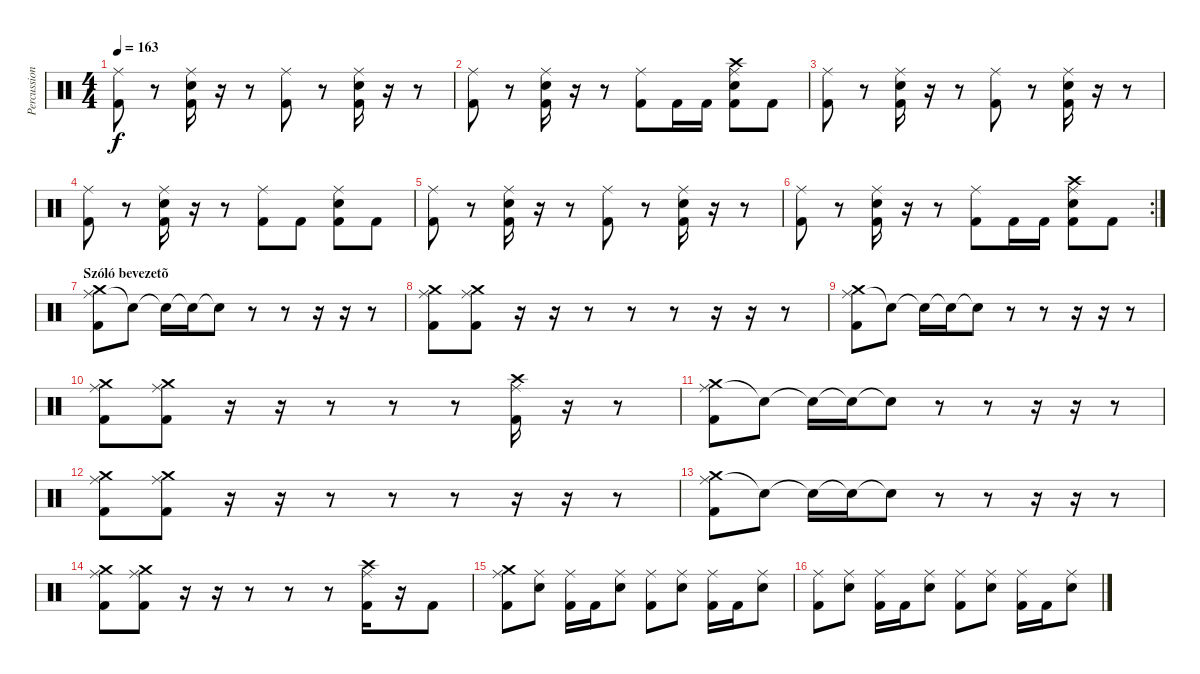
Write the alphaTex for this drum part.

\track ("Percussion" "Percussion") {instrument percussion}
\staff {score}
\articulation defaults
\ts (4 4)
\tempo 163
\clef neutral
\ks c
("Ride (middle)" "Kick (hit) 2").8{dy f} r.8 ("Ride (middle)" "Kick (hit) 2" "Electric Snare (hit)").16 r.16 r.8 ("Ride (middle)" "Kick (hit) 2").8 r.8 ("Ride (middle)" "Kick (hit) 2" "Electric Snare (hit)").16 r.16 r.8 |
("Ride (middle)" "Kick (hit) 2").8 r.8 ("Ride (middle)" "Kick (hit) 2" "Electric Snare (hit)").16 r.16 r.8 ("Ride (middle)" "Kick (hit) 2").8 "Kick (hit) 2".16 "Kick (hit) 2".16 ("Ride (middle)" "Crash high (hit)" "Kick (hit) 2" "Electric Snare (hit)").8 "Kick (hit) 2".8 |
("Ride (middle)" "Kick (hit) 2").8 r.8 ("Ride (middle)" "Kick (hit) 2" "Electric Snare (hit)").16 r.16 r.8 ("Ride (middle)" "Kick (hit) 2").8 r.8 ("Ride (middle)" "Kick (hit) 2" "Electric Snare (hit)").16 r.16 r.8 |
("Ride (middle)" "Kick (hit) 2").8 r.8 ("Ride (middle)" "Kick (hit) 2" "Electric Snare (hit)").16 r.16 r.8 ("Ride (middle)" "Kick (hit) 2").8 "Kick (hit) 2".8 ("Ride (middle)" "Kick (hit) 2" "Electric Snare (hit)").8 "Kick (hit) 2".8 |
("Ride (middle)" "Kick (hit) 2").8 r.8 ("Ride (middle)" "Kick (hit) 2" "Electric Snare (hit)").16 r.16 r.8 ("Ride (middle)" "Kick (hit) 2").8 r.8 ("Ride (middle)" "Kick (hit) 2" "Electric Snare (hit)").16 r.16 r.8 |
\rc 2
("Ride (middle)" "Kick (hit) 2").8 r.8 ("Ride (middle)" "Kick (hit) 2" "Electric Snare (hit)").16 r.16 r.8 ("Ride (middle)" "Kick (hit) 2").8 "Kick (hit) 2".16 "Kick (hit) 2".16 ("Ride (middle)" "Crash high (hit)" "Kick (hit) 2" "Electric Snare (hit)").8 "Kick (hit) 2".8 |
\section ("" "Szóló bevezetõ")
("Ride (middle)" "Crash medium (hit)" "Kick (hit) 2").8 "Snare (hit)"{t}.8 "Snare (hit)"{t}.16 "Snare (hit)"{t}.16 "Snare (hit)"{t}.8 r.8 r.8 r.16 r.16 r.8 |
("Ride (middle)" "Crash medium (hit)" "Kick (hit) 2").8 ("Ride (middle)" "Crash medium (hit)" "Kick (hit) 2").8 r.16 r.16 r.8 r.8 r.8 r.16 r.16 r.8 |
("Ride (middle)" "Crash medium (hit)" "Kick (hit) 2").8 "Snare (hit)"{t}.8 "Snare (hit)"{t}.16 "Snare (hit)"{t}.16 "Snare (hit)"{t}.8 r.8 r.8 r.16 r.16 r.8 |
("Ride (middle)" "Crash medium (hit)" "Kick (hit) 2").8 ("Ride (middle)" "Crash medium (hit)" "Kick (hit) 2").8 r.16 r.16 r.8 r.8 r.8 ("Ride (middle)" "Crash high (hit)" "Kick (hit) 2").16 r.16 r.8 |
("Ride (middle)" "Crash medium (hit)" "Kick (hit) 2").8 "Snare (hit)"{t}.8 "Snare (hit)"{t}.16 "Snare (hit)"{t}.16 "Snare (hit)"{t}.8 r.8 r.8 r.16 r.16 r.8 |
("Ride (middle)" "Crash medium (hit)" "Kick (hit) 2").8 ("Ride (middle)" "Crash medium (hit)" "Kick (hit) 2").8 r.16 r.16 r.8 r.8 r.8 r.16 r.16 r.8 |
("Ride (middle)" "Crash medium (hit)" "Kick (hit) 2").8 "Snare (hit)"{t}.8 "Snare (hit)"{t}.16 "Snare (hit)"{t}.16 "Snare (hit)"{t}.8 r.8 r.8 r.16 r.16 r.8 |
("Ride (middle)" "Crash medium (hit)" "Kick (hit) 2").8 ("Ride (middle)" "Crash medium (hit)" "Kick (hit) 2").8 r.16 r.16 r.8 r.8 r.8 ("Ride (middle)" "Crash high (hit)" "Kick (hit) 2").16 r.16 "Kick (hit) 2".8 |
("Ride (middle)" "Crash medium (hit)" "Kick (hit) 2").8 ("Ride (middle)" "Electric Snare (hit)").8 ("Ride (middle)" "Kick (hit) 2").16 "Kick (hit) 2".16 ("Ride (middle)" "Electric Snare (hit)").8 ("Ride (middle)" "Kick (hit) 2").8 ("Ride (middle)" "Electric Snare (hit)").8 ("Ride (middle)" "Kick (hit) 2").16 "Kick (hit) 2".16 ("Ride (middle)" "Electric Snare (hit)").8 |
("Ride (middle)" "Kick (hit) 2").8 ("Ride (middle)" "Electric Snare (hit)").8 ("Ride (middle)" "Kick (hit) 2").16 "Kick (hit) 2".16 ("Ride (middle)" "Electric Snare (hit)").8 ("Ride (middle)" "Kick (hit) 2").8 ("Ride (middle)" "Electric Snare (hit)").8 ("Ride (middle)" "Kick (hit) 2").16 "Kick (hit) 2".16 ("Ride (middle)" "Electric Snare (hit)").8
